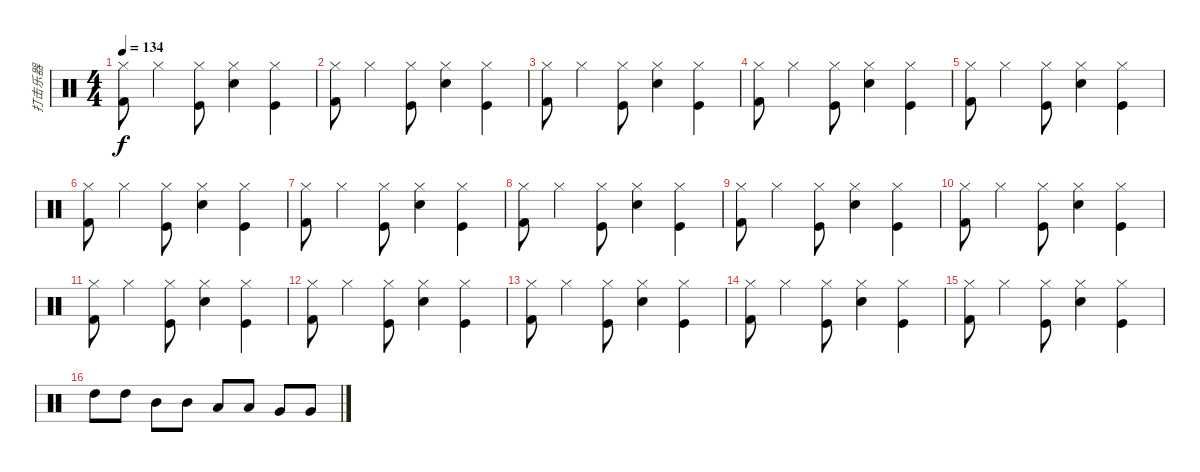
\track ("打击乐器" "打击乐器") {instrument percussion}
\staff {score}
\articulation defaults
\ts (4 4)
\tempo 134
\clef neutral
\ks c
("Kick (hit) 2" "Hi-Hat (closed)").8{dy f} "Hi-Hat (closed)".4 ("Hi-Hat (closed)" "Kick (hit)").8 ("Snare (hit) 2" "Hi-Hat (closed)").4 ("Kick (hit)" "Hi-Hat (closed)").4 |
("Kick (hit) 2" "Hi-Hat (closed)").8 "Hi-Hat (closed)".4 ("Hi-Hat (closed)" "Kick (hit)").8 ("Snare (hit) 2" "Hi-Hat (closed)").4 ("Kick (hit)" "Hi-Hat (closed)").4 |
("Kick (hit) 2" "Hi-Hat (closed)").8 "Hi-Hat (closed)".4 ("Hi-Hat (closed)" "Kick (hit)").8 ("Snare (hit) 2" "Hi-Hat (closed)").4 ("Kick (hit)" "Hi-Hat (closed)").4 |
("Kick (hit) 2" "Hi-Hat (closed)").8 "Hi-Hat (closed)".4 ("Hi-Hat (closed)" "Kick (hit)").8 ("Snare (hit) 2" "Hi-Hat (closed)").4 ("Kick (hit)" "Hi-Hat (closed)").4 |
("Kick (hit) 2" "Hi-Hat (closed)").8 "Hi-Hat (closed)".4 ("Hi-Hat (closed)" "Kick (hit)").8 ("Snare (hit) 2" "Hi-Hat (closed)").4 ("Kick (hit)" "Hi-Hat (closed)").4 |
("Kick (hit) 2" "Hi-Hat (closed)").8 "Hi-Hat (closed)".4 ("Hi-Hat (closed)" "Kick (hit)").8 ("Snare (hit) 2" "Hi-Hat (closed)").4 ("Kick (hit)" "Hi-Hat (closed)").4 |
("Kick (hit) 2" "Hi-Hat (closed)").8 "Hi-Hat (closed)".4 ("Hi-Hat (closed)" "Kick (hit)").8 ("Snare (hit) 2" "Hi-Hat (closed)").4 ("Kick (hit)" "Hi-Hat (closed)").4 |
("Kick (hit) 2" "Hi-Hat (closed)").8 "Hi-Hat (closed)".4 ("Hi-Hat (closed)" "Kick (hit)").8 ("Snare (hit) 2" "Hi-Hat (closed)").4 ("Kick (hit)" "Hi-Hat (closed)").4 |
("Kick (hit) 2" "Hi-Hat (closed)").8 "Hi-Hat (closed)".4 ("Hi-Hat (closed)" "Kick (hit)").8 ("Snare (hit) 2" "Hi-Hat (closed)").4 ("Kick (hit)" "Hi-Hat (closed)").4 |
("Kick (hit) 2" "Hi-Hat (closed)").8 "Hi-Hat (closed)".4 ("Hi-Hat (closed)" "Kick (hit)").8 ("Snare (hit) 2" "Hi-Hat (closed)").4 ("Kick (hit)" "Hi-Hat (closed)").4 |
("Kick (hit) 2" "Hi-Hat (closed)").8 "Hi-Hat (closed)".4 ("Hi-Hat (closed)" "Kick (hit)").8 ("Snare (hit) 2" "Hi-Hat (closed)").4 ("Kick (hit)" "Hi-Hat (closed)").4 |
("Kick (hit) 2" "Hi-Hat (closed)").8 "Hi-Hat (closed)".4 ("Hi-Hat (closed)" "Kick (hit)").8 ("Snare (hit) 2" "Hi-Hat (closed)").4 ("Kick (hit)" "Hi-Hat (closed)").4 |
("Kick (hit) 2" "Hi-Hat (closed)").8 "Hi-Hat (closed)".4 ("Hi-Hat (closed)" "Kick (hit)").8 ("Snare (hit) 2" "Hi-Hat (closed)").4 ("Kick (hit)" "Hi-Hat (closed)").4 |
("Kick (hit) 2" "Hi-Hat (closed)").8 "Hi-Hat (closed)".4 ("Hi-Hat (closed)" "Kick (hit)").8 ("Snare (hit) 2" "Hi-Hat (closed)").4 ("Kick (hit)" "Hi-Hat (closed)").4 |
("Kick (hit) 2" "Hi-Hat (closed)").8 "Hi-Hat (closed)".4 ("Hi-Hat (closed)" "Kick (hit)").8 ("Snare (hit) 2" "Hi-Hat (closed)").4 ("Kick (hit)" "Hi-Hat (closed)").4 |
"High Tom (hit)".8 "High Tom (hit)".8 "Mid Tom (hit)".8 "Mid Tom (hit)".8 "Low Tom (hit)".8 "Low Tom (hit)".8 "Very Low Tom (hit)".8 "Very Low Tom (hit)".8
